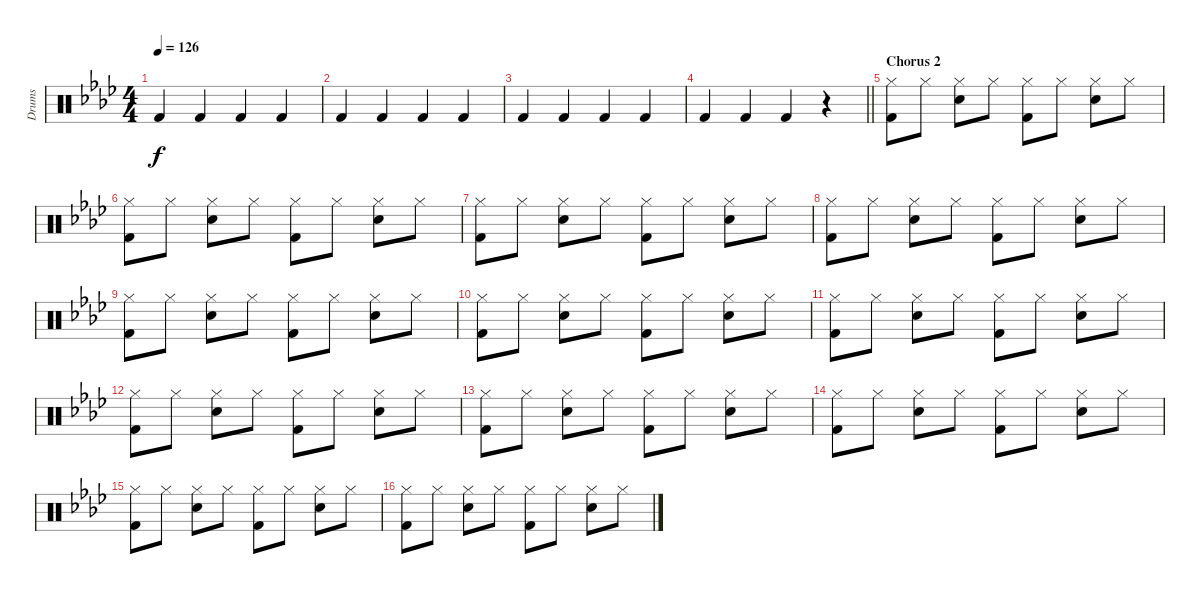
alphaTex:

\track ("Drums" "Drums") {instrument percussion}
\staff {score}
\articulation defaults
\ts (4 4)
\tempo 126
\clef neutral
\ks ab "Kick (hit) 2".4{dy f} "Kick (hit) 2".4 "Kick (hit) 2".4 "Kick (hit) 2".4
|
"Kick (hit) 2".4 "Kick (hit) 2".4 "Kick (hit) 2".4 "Kick (hit) 2".4 |
"Kick (hit) 2".4 "Kick (hit) 2".4 "Kick (hit) 2".4 "Kick (hit) 2".4 |
\barLineRight lightlight "Kick (hit) 2".4 "Kick (hit) 2".4 "Kick (hit) 2".4
r.4 |
\section ("" "Chorus 2")
("Hi-Hat (closed)" "Kick (hit) 2").8 "Hi-Hat (closed)".8 ("Hi-Hat (closed)" "Electric Snare (hit)").8 "Hi-Hat (closed)".8 ("Hi-Hat (closed)" "Kick (hit) 2").8 "Hi-Hat (closed)".8 ("Hi-Hat (closed)" "Electric Snare (hit)").8 "Hi-Hat (closed)".8 |
("Hi-Hat (closed)" "Kick (hit) 2").8 "Hi-Hat (closed)".8 ("Hi-Hat (closed)" "Electric Snare (hit)").8 "Hi-Hat (closed)".8 ("Hi-Hat (closed)" "Kick (hit) 2").8 "Hi-Hat (closed)".8 ("Hi-Hat (closed)" "Electric Snare (hit)").8 "Hi-Hat (closed)".8 |
("Hi-Hat (closed)" "Kick (hit) 2").8 "Hi-Hat (closed)".8 ("Hi-Hat (closed)" "Electric Snare (hit)").8 "Hi-Hat (closed)".8 ("Hi-Hat (closed)" "Kick (hit) 2").8 "Hi-Hat (closed)".8 ("Hi-Hat (closed)" "Electric Snare (hit)").8 "Hi-Hat (closed)".8 |
("Hi-Hat (closed)" "Kick (hit) 2").8 "Hi-Hat (closed)".8 ("Hi-Hat (closed)" "Electric Snare (hit)").8 "Hi-Hat (closed)".8 ("Hi-Hat (closed)" "Kick (hit) 2").8 "Hi-Hat (closed)".8 ("Hi-Hat (closed)" "Electric Snare (hit)").8 "Hi-Hat (closed)".8 |
("Hi-Hat (closed)" "Kick (hit) 2").8 "Hi-Hat (closed)".8 ("Hi-Hat (closed)" "Electric Snare (hit)").8 "Hi-Hat (closed)".8 ("Hi-Hat (closed)" "Kick (hit) 2").8 "Hi-Hat (closed)".8 ("Hi-Hat (closed)" "Electric Snare (hit)").8 "Hi-Hat (closed)".8 |
("Hi-Hat (closed)" "Kick (hit) 2").8 "Hi-Hat (closed)".8 ("Hi-Hat (closed)" "Electric Snare (hit)").8 "Hi-Hat (closed)".8 ("Hi-Hat (closed)" "Kick (hit) 2").8 "Hi-Hat (closed)".8 ("Hi-Hat (closed)" "Electric Snare (hit)").8 "Hi-Hat (closed)".8 |
("Hi-Hat (closed)" "Kick (hit) 2").8 "Hi-Hat (closed)".8 ("Hi-Hat (closed)" "Electric Snare (hit)").8 "Hi-Hat (closed)".8 ("Hi-Hat (closed)" "Kick (hit) 2").8 "Hi-Hat (closed)".8 ("Hi-Hat (closed)" "Electric Snare (hit)").8 "Hi-Hat (closed)".8 |
("Hi-Hat (closed)" "Kick (hit) 2").8 "Hi-Hat (closed)".8 ("Hi-Hat (closed)" "Electric Snare (hit)").8 "Hi-Hat (closed)".8 ("Hi-Hat (closed)" "Kick (hit) 2").8 "Hi-Hat (closed)".8 ("Hi-Hat (closed)" "Electric Snare (hit)").8 "Hi-Hat (closed)".8 |
("Hi-Hat (closed)" "Kick (hit) 2").8 "Hi-Hat (closed)".8 ("Hi-Hat (closed)" "Electric Snare (hit)").8 "Hi-Hat (closed)".8 ("Hi-Hat (closed)" "Kick (hit) 2").8 "Hi-Hat (closed)".8 ("Hi-Hat (closed)" "Electric Snare (hit)").8 "Hi-Hat (closed)".8 |
("Hi-Hat (closed)" "Kick (hit) 2").8 "Hi-Hat (closed)".8 ("Hi-Hat (closed)" "Electric Snare (hit)").8 "Hi-Hat (closed)".8 ("Hi-Hat (closed)" "Kick (hit) 2").8 "Hi-Hat (closed)".8 ("Hi-Hat (closed)" "Electric Snare (hit)").8 "Hi-Hat (closed)".8 |
("Hi-Hat (closed)" "Kick (hit) 2").8 "Hi-Hat (closed)".8 ("Hi-Hat (closed)" "Electric Snare (hit)").8 "Hi-Hat (closed)".8 ("Hi-Hat (closed)" "Kick (hit) 2").8 "Hi-Hat (closed)".8 ("Hi-Hat (closed)" "Electric Snare (hit)").8 "Hi-Hat (closed)".8 |
("Hi-Hat (closed)" "Kick (hit) 2").8 "Hi-Hat (closed)".8 ("Hi-Hat (closed)" "Electric Snare (hit)").8 "Hi-Hat (closed)".8 ("Hi-Hat (closed)" "Kick (hit) 2").8 "Hi-Hat (closed)".8 ("Hi-Hat (closed)" "Electric Snare (hit)").8 "Hi-Hat (closed)".8
